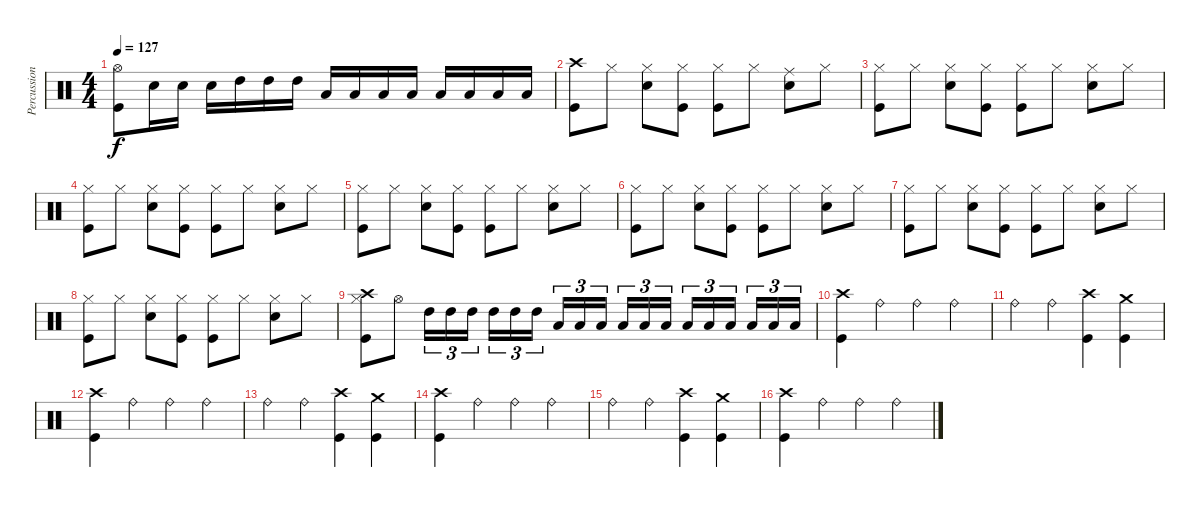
\track ("Percussions" "Percussion") {instrument percussion}
\staff {score}
\articulation defaults
\ts (4 4)
\tempo 127
\clef neutral
\ks c
("Hi-Hat (open)" "Kick (hit)").8{dy f} "Snare (hit) 2".16 "Snare (hit) 2".16 "Snare (hit) 2".16 "High Tom (hit)".16 "High Tom (hit)".16 "High Tom (hit)".16 "Low Tom (hit)".16 "Low Tom (hit)".16 "Low Tom (hit)".16 "Low Tom (hit)".16 "Low Tom (hit)".16 "Low Tom (hit)".16 "Low Tom (hit)".16 "Low Tom (hit)".16 |
("Crash high (hit)" "Kick (hit)").8 "Hi-Hat (closed)".8 ("Hi-Hat (closed)" "Snare (hit) 2").8 ("Hi-Hat (closed)" "Kick (hit)").8 ("Hi-Hat (closed)" "Kick (hit)").8 "Hi-Hat (closed)".8 ("Ride (middle)" "Snare (hit) 2").8 "Hi-Hat (closed)".8 |
("Hi-Hat (closed)" "Kick (hit)").8 "Hi-Hat (closed)".8 ("Hi-Hat (closed)" "Snare (hit) 2").8 ("Hi-Hat (closed)" "Kick (hit)").8 ("Hi-Hat (closed)" "Kick (hit)").8 "Hi-Hat (closed)".8 ("Hi-Hat (closed)" "Snare (hit) 2").8 "Hi-Hat (closed)".8 |
("Hi-Hat (closed)" "Kick (hit)").8 "Hi-Hat (closed)".8 ("Hi-Hat (closed)" "Snare (hit) 2").8 ("Hi-Hat (closed)" "Kick (hit)").8 ("Hi-Hat (closed)" "Kick (hit)").8 "Hi-Hat (closed)".8 ("Hi-Hat (closed)" "Snare (hit) 2").8 "Hi-Hat (closed)".8 |
("Hi-Hat (closed)" "Kick (hit)").8 "Hi-Hat (closed)".8 ("Hi-Hat (closed)" "Snare (hit) 2").8 ("Hi-Hat (closed)" "Kick (hit)").8 ("Hi-Hat (closed)" "Kick (hit)").8 "Hi-Hat (closed)".8 ("Hi-Hat (closed)" "Snare (hit) 2").8 "Hi-Hat (closed)".8 |
("Hi-Hat (closed)" "Kick (hit)").8 "Hi-Hat (closed)".8 ("Hi-Hat (closed)" "Snare (hit) 2").8 ("Hi-Hat (closed)" "Kick (hit)").8 ("Hi-Hat (closed)" "Kick (hit)").8 "Hi-Hat (closed)".8 ("Hi-Hat (closed)" "Snare (hit) 2").8 "Hi-Hat (closed)".8 |
("Hi-Hat (closed)" "Kick (hit)").8 "Hi-Hat (closed)".8 ("Hi-Hat (closed)" "Snare (hit) 2").8 ("Hi-Hat (closed)" "Kick (hit)").8 ("Hi-Hat (closed)" "Kick (hit)").8 "Hi-Hat (closed)".8 ("Hi-Hat (closed)" "Snare (hit) 2").8 "Hi-Hat (closed)".8 |
("Hi-Hat (closed)" "Kick (hit)").8 "Hi-Hat (closed)".8 ("Hi-Hat (closed)" "Snare (hit) 2").8 ("Hi-Hat (closed)" "Kick (hit)").8 ("Hi-Hat (closed)" "Kick (hit)").8 "Hi-Hat (closed)".8 ("Hi-Hat (closed)" "Snare (hit) 2").8 "Hi-Hat (closed)".8 |
("Crash high (hit)" "Hi-Hat (closed)" "Kick (hit)").8 "Hi-Hat (open)".8 "High Tom (hit)".16{tu (3 2)} "High Tom (hit)".16{tu (3 2)} "High Tom (hit)".16{tu (3 2)} "High Tom (hit)".16{tu (3 2)} "High Tom (hit)".16{tu (3 2)} "High Tom (hit)".16{tu (3 2)} "Low Tom (hit)".16{tu (3 2)} "Low Tom (hit)".16{tu (3 2)} "Low Tom (hit)".16{tu (3 2)} "Low Tom (hit)".16{tu (3 2)} "Low Tom (hit)".16{tu (3 2)} "Low Tom (hit)".16{tu (3 2)} "Low Tom (hit)".16{tu (3 2)} "Low Tom (hit)".16{tu (3 2)} "Low Tom (hit)".16{tu (3 2)} "Low Tom (hit)".16{tu (3 2)} "Low Tom (hit)".16{tu (3 2)} "Low Tom (hit)".16{tu (3 2)} |
("Crash high (hit)" "Kick (hit)").4 "Ride (bell)".4 "Ride (bell)".4 "Ride (bell)".4 |
"Ride (bell)".4 "Ride (bell)".4 ("Crash high (hit)" "Kick (hit)").4 ("Crash medium (hit)" "Kick (hit)").4 |
("Crash high (hit)" "Kick (hit)").4 "Ride (bell)".4 "Ride (bell)".4 "Ride (bell)".4 |
"Ride (bell)".4 "Ride (bell)".4 ("Crash high (hit)" "Kick (hit)").4 ("Crash medium (hit)" "Kick (hit)").4 |
("Crash high (hit)" "Kick (hit)").4 "Ride (bell)".4 "Ride (bell)".4 "Ride (bell)".4 |
"Ride (bell)".4 "Ride (bell)".4 ("Crash high (hit)" "Kick (hit)").4 ("Crash medium (hit)" "Kick (hit)").4 |
("Crash high (hit)" "Kick (hit)").4 "Ride (bell)".4 "Ride (bell)".4 "Ride (bell)".4
